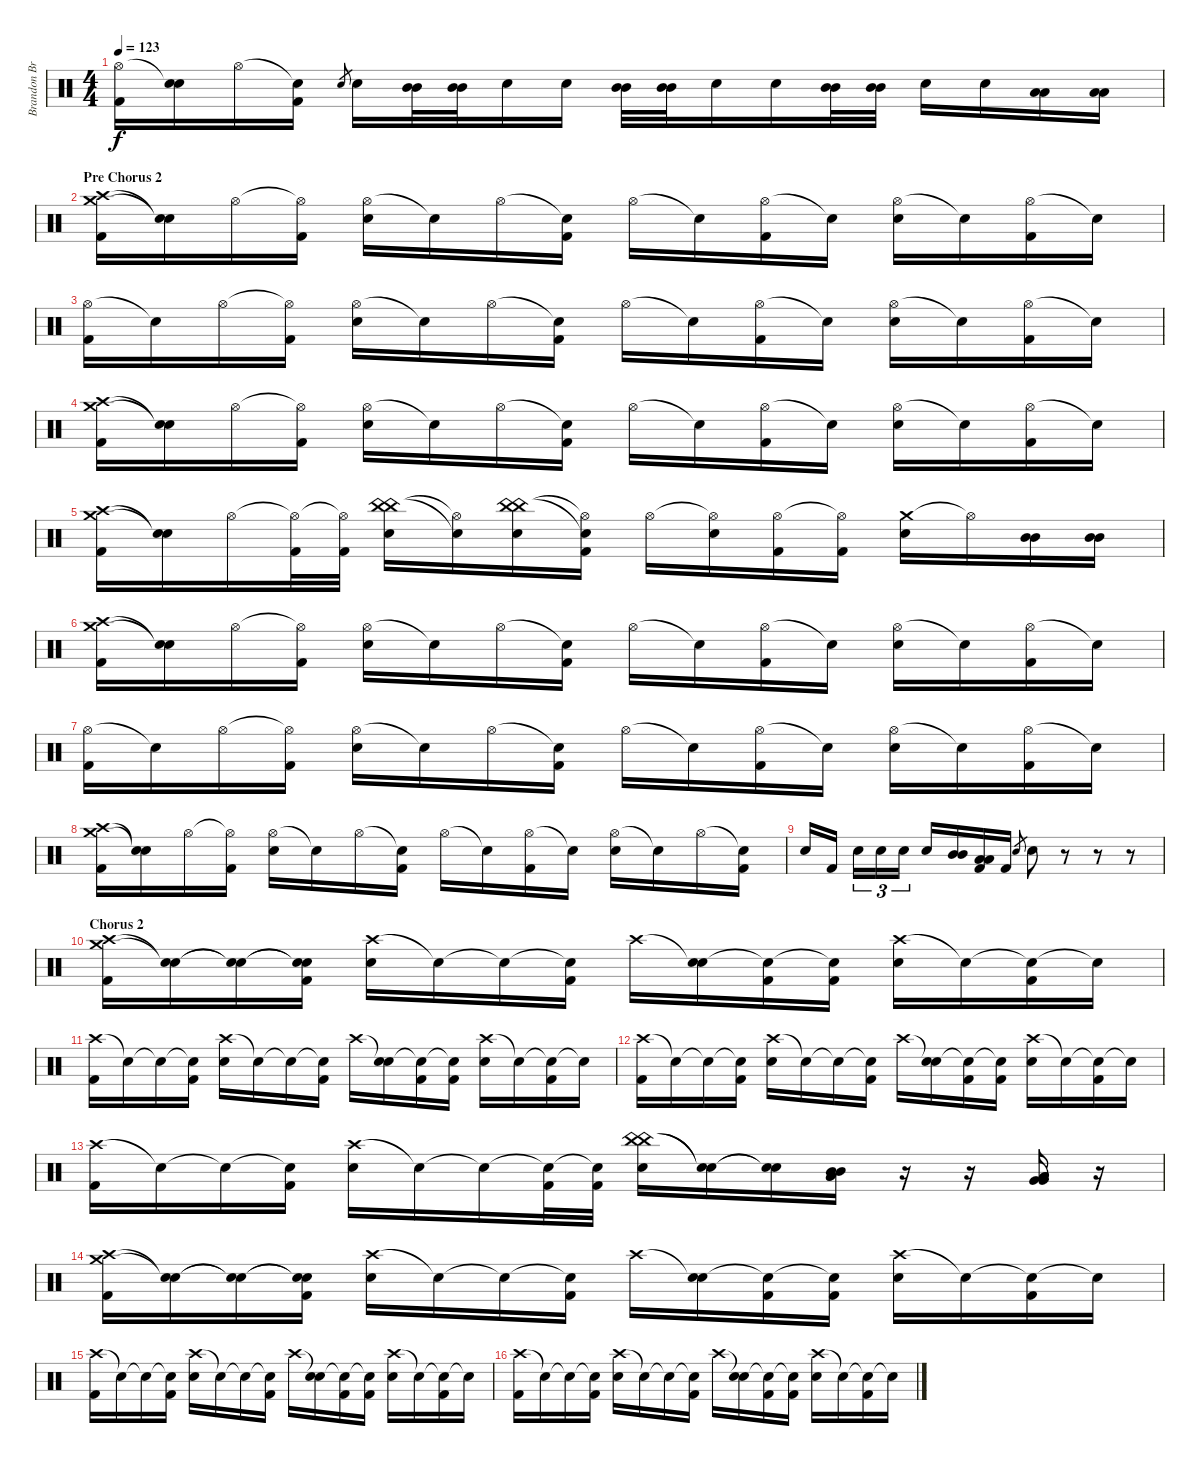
\track ("Brandon Brown (Drums)" "Brandon Br") {instrument percussion}
\staff {score}
\articulation defaults
\ts (4 4)
\tempo 123
\clef neutral
\ks c
("Hi-Hat (open)" "Kick (hit) 2").16{dy f} ("Snare (hit)"{t} "Electric Snare (hit)").16 "Hi-Hat (open)".16 ("Snare (hit)"{t} "Kick (hit) 2").16 "Electric Snare (hit)".8{gr} "Electric Snare (hit)".16 ("Mid Tom (hit)" "Mid Tom (hit)").32 ("Mid Tom (hit)" "Mid Tom (hit)").32 "Electric Snare (hit)".16 "Electric Snare (hit)".16 ("Mid Tom (hit)" "Mid Tom (hit)").32 ("Mid Tom (hit)" "Mid Tom (hit)").32 "Electric Snare (hit)".16 "Electric Snare (hit)".16 ("Mid Tom (hit)" "Mid Tom (hit)").32 ("Mid Tom (hit)" "Mid Tom (hit)").32 "Electric Snare (hit)".16 "Electric Snare (hit)".16 ("Low Tom (hit)" "Low Tom (hit)").16 ("Low Tom (hit)" "Low Tom (hit)").16 |
\section ("" "Pre Chorus 2")
("Crash high (hit)" "Crash medium (hit)" "Kick (hit) 2").16 ("Snare (hit)"{t} "Snare (hit)"{t}).16 "Hi-Hat (open)".16 ("Hi-Hat (open)"{t} "Kick (hit) 2").16 ("Hi-Hat (open)" "Electric Snare (hit)").16 "Snare (hit)"{t}.16 "Hi-Hat (open)".16 ("Snare (hit)"{t} "Kick (hit) 2").16 "Hi-Hat (open)".16 "Snare (hit)"{t}.16 ("Hi-Hat (open)" "Kick (hit) 2").16 "Snare (hit)"{t}.16 ("Hi-Hat (open)" "Electric Snare (hit)").16 "Snare (hit)"{t}.16 ("Hi-Hat (open)" "Kick (hit) 2").16 "Snare (hit)"{t}.16 |
("Hi-Hat (open)" "Kick (hit) 2").16 "Snare (hit)"{t}.16 "Hi-Hat (open)".16 ("Hi-Hat (open)"{t} "Kick (hit) 2").16 ("Hi-Hat (open)" "Electric Snare (hit)").16 "Snare (hit)"{t}.16 "Hi-Hat (open)".16 ("Snare (hit)"{t} "Kick (hit) 2").16 "Hi-Hat (open)".16 "Snare (hit)"{t}.16 ("Hi-Hat (open)" "Kick (hit) 2").16 "Snare (hit)"{t}.16 ("Hi-Hat (open)" "Electric Snare (hit)").16 "Snare (hit)"{t}.16 ("Hi-Hat (open)" "Kick (hit) 2").16 "Snare (hit)"{t}.16 |
("Crash high (hit)" "Crash medium (hit)" "Kick (hit) 2").16 ("Snare (hit)"{t} "Snare (hit)"{t}).16 "Hi-Hat (open)".16 ("Hi-Hat (open)"{t} "Kick (hit) 2").16 ("Hi-Hat (open)" "Electric Snare (hit)").16 "Snare (hit)"{t}.16 "Hi-Hat (open)".16 ("Snare (hit)"{t} "Kick (hit) 2").16 "Hi-Hat (open)".16 "Snare (hit)"{t}.16 ("Hi-Hat (open)" "Kick (hit) 2").16 "Snare (hit)"{t}.16 ("Hi-Hat (open)" "Electric Snare (hit)").16 "Snare (hit)"{t}.16 ("Hi-Hat (open)" "Kick (hit) 2").16 "Snare (hit)"{t}.16 |
("Crash high (hit)" "Crash medium (hit)" "Kick (hit) 2").16 ("Snare (hit)"{t} "Snare (hit)"{t}).16 "Hi-Hat (open)".16 ("Hi-Hat (open)"{t} "Kick (hit) 2").32 ("Hi-Hat (open)"{t} "Kick (hit) 2").32 ("China (hit)" "China (hit)" "Electric Snare (hit)").16 ("Hi-Hat (open)"{t} "Snare (hit)"{t}).16 ("China (hit)" "China (hit)" "Electric Snare (hit)").16 ("Hi-Hat (open)"{t} "Snare (hit)"{t} "Kick (hit) 2").16 "Hi-Hat (open)".16 ("Hi-Hat (open)"{t} "Electric Snare (hit)").16 ("Hi-Hat (open)" "Kick (hit) 2").16 ("Hi-Hat (open)"{t} "Kick (hit) 2").16 ("Crash medium (hit)" "Electric Snare (hit)").16 "Hi-Hat (open)"{t}.16 ("Mid Tom (hit)" "Mid Tom (hit)").16 ("Mid Tom (hit)" "Mid Tom (hit)").16 |
("Crash high (hit)" "Crash medium (hit)" "Kick (hit) 2").16 ("Snare (hit)"{t} "Snare (hit)"{t}).16 "Hi-Hat (open)".16 ("Hi-Hat (open)"{t} "Kick (hit) 2").16 ("Hi-Hat (open)" "Electric Snare (hit)").16 "Snare (hit)"{t}.16 "Hi-Hat (open)".16 ("Snare (hit)"{t} "Kick (hit) 2").16 "Hi-Hat (open)".16 "Snare (hit)"{t}.16 ("Hi-Hat (open)" "Kick (hit) 2").16 "Snare (hit)"{t}.16 ("Hi-Hat (open)" "Electric Snare (hit)").16 "Snare (hit)"{t}.16 ("Hi-Hat (open)" "Kick (hit) 2").16 "Snare (hit)"{t}.16 |
("Hi-Hat (open)" "Kick (hit) 2").16 "Snare (hit)"{t}.16 "Hi-Hat (open)".16 ("Hi-Hat (open)"{t} "Kick (hit) 2").16 ("Hi-Hat (open)" "Electric Snare (hit)").16 "Snare (hit)"{t}.16 "Hi-Hat (open)".16 ("Snare (hit)"{t} "Kick (hit) 2").16 "Hi-Hat (open)".16 "Snare (hit)"{t}.16 ("Hi-Hat (open)" "Kick (hit) 2").16 "Snare (hit)"{t}.16 ("Hi-Hat (open)" "Electric Snare (hit)").16 "Snare (hit)"{t}.16 ("Hi-Hat (open)" "Kick (hit) 2").16 "Snare (hit)"{t}.16 |
("Crash high (hit)" "Crash medium (hit)" "Kick (hit) 2").16 ("Snare (hit)"{t} "Snare (hit)"{t}).16 "Hi-Hat (open)".16 ("Hi-Hat (open)"{t} "Kick (hit) 2").16 ("Hi-Hat (open)" "Electric Snare (hit)").16 "Snare (hit)"{t}.16 "Hi-Hat (open)".16 ("Snare (hit)"{t} "Kick (hit) 2").16 "Hi-Hat (open)".16 "Snare (hit)"{t}.16 ("Hi-Hat (open)" "Kick (hit) 2").16 "Snare (hit)"{t}.16 ("Hi-Hat (open)" "Electric Snare (hit)").16 "Snare (hit)"{t}.16 "Hi-Hat (open)".16 ("Snare (hit)"{t} "Kick (hit) 2").16 |
"Electric Snare (hit)".16 "Kick (hit) 2".16 "Electric Snare (hit)".16{tu (3 2)} "Electric Snare (hit)".16{tu (3 2)} "Electric Snare (hit)".16{tu (3 2)} "Electric Snare (hit)".16 ("Mid Tom (hit)" "Mid Tom (hit)").16 ("Low Tom (hit)" "Low Tom (hit)" "Kick (hit) 2").16 "Kick (hit) 2".16 "Electric Snare (hit)".8{gr} "Electric Snare (hit)".8 r.8 r.8 r.8 |
\section ("" "Chorus 2")
("Crash high (hit)" "Crash medium (hit)" "Kick (hit) 2").16 ("Snare (hit)"{t} "Snare (hit)"{t}).16 ("Snare (hit)"{t} "Snare (hit)"{t}).16 ("Snare (hit)"{t} "Snare (hit)"{t} "Kick (hit) 2").16 ("Crash high (hit)" "Electric Snare (hit)").16 "Snare (hit)"{t}.16 "Snare (hit)"{t}.16 ("Snare (hit)"{t} "Kick (hit) 2").16 "Crash high (hit)".16 ("Snare (hit)"{t} "Electric Snare (hit)").16 ("Snare (hit)"{t} "Kick (hit) 2").16 ("Snare (hit)"{t} "Kick (hit) 2").16 ("Crash high (hit)" "Electric Snare (hit)").16 "Snare (hit)"{t}.16 ("Snare (hit)"{t} "Kick (hit) 2").16 "Snare (hit)"{t}.16 |
("Crash high (hit)" "Kick (hit) 2").16 "Snare (hit)"{t}.16 "Snare (hit)"{t}.16 ("Snare (hit)"{t} "Kick (hit) 2").16 ("Crash high (hit)" "Electric Snare (hit)").16 "Snare (hit)"{t}.16 "Snare (hit)"{t}.16 ("Snare (hit)"{t} "Kick (hit) 2").16 "Crash high (hit)".16 ("Snare (hit)"{t} "Electric Snare (hit)").16 ("Snare (hit)"{t} "Kick (hit) 2").16 ("Snare (hit)"{t} "Kick (hit) 2").16 ("Crash high (hit)" "Electric Snare (hit)").16 "Snare (hit)"{t}.16 ("Snare (hit)"{t} "Kick (hit) 2").16 "Snare (hit)"{t}.16 |
("Crash high (hit)" "Kick (hit) 2").16 "Snare (hit)"{t}.16 "Snare (hit)"{t}.16 ("Snare (hit)"{t} "Kick (hit) 2").16 ("Crash high (hit)" "Electric Snare (hit)").16 "Snare (hit)"{t}.16 "Snare (hit)"{t}.16 ("Snare (hit)"{t} "Kick (hit) 2").16 "Crash high (hit)".16 ("Snare (hit)"{t} "Electric Snare (hit)").16 ("Snare (hit)"{t} "Kick (hit) 2").16 ("Snare (hit)"{t} "Kick (hit) 2").16 ("Crash high (hit)" "Electric Snare (hit)").16 "Snare (hit)"{t}.16 ("Snare (hit)"{t} "Kick (hit) 2").16 "Snare (hit)"{t}.16 |
("Crash high (hit)" "Kick (hit) 2").16 "Snare (hit)"{t}.16 "Snare (hit)"{t}.16 ("Snare (hit)"{t} "Kick (hit) 2").16 ("Crash high (hit)" "Electric Snare (hit)").16 "Snare (hit)"{t}.16 "Snare (hit)"{t}.16 ("Snare (hit)"{t} "Kick (hit) 2").32 ("Snare (hit)"{t} "Kick (hit) 2").32 ("China (hit)" "China (hit)" "Electric Snare (hit)").16 ("Snare (hit)"{t} "Snare (hit)"{t}).16 ("Snare (hit)"{t} "Snare (hit)"{t}).16 ("Mid Tom (hit)" "Mid Tom (hit)" "Low Tom (hit)" "Low Tom (hit)").16 r.16 r.16 ("Low Tom (hit)" "Low Tom (hit)" "Very Low Tom (hit)" "Very Low Tom (hit)").16 r.16 |
("Crash high (hit)" "Crash medium (hit)" "Kick (hit) 2").16 ("Snare (hit)"{t} "Snare (hit)"{t}).16 ("Snare (hit)"{t} "Snare (hit)"{t}).16 ("Snare (hit)"{t} "Snare (hit)"{t} "Kick (hit) 2").16 ("Crash high (hit)" "Electric Snare (hit)").16 "Snare (hit)"{t}.16 "Snare (hit)"{t}.16 ("Snare (hit)"{t} "Kick (hit) 2").16 "Crash high (hit)".16 ("Snare (hit)"{t} "Electric Snare (hit)").16 ("Snare (hit)"{t} "Kick (hit) 2").16 ("Snare (hit)"{t} "Kick (hit) 2").16 ("Crash high (hit)" "Electric Snare (hit)").16 "Snare (hit)"{t}.16 ("Snare (hit)"{t} "Kick (hit) 2").16 "Snare (hit)"{t}.16 |
("Crash high (hit)" "Kick (hit) 2").16 "Snare (hit)"{t}.16 "Snare (hit)"{t}.16 ("Snare (hit)"{t} "Kick (hit) 2").16 ("Crash high (hit)" "Electric Snare (hit)").16 "Snare (hit)"{t}.16 "Snare (hit)"{t}.16 ("Snare (hit)"{t} "Kick (hit) 2").16 "Crash high (hit)".16 ("Snare (hit)"{t} "Electric Snare (hit)").16 ("Snare (hit)"{t} "Kick (hit) 2").16 ("Snare (hit)"{t} "Kick (hit) 2").16 ("Crash high (hit)" "Electric Snare (hit)").16 "Snare (hit)"{t}.16 ("Snare (hit)"{t} "Kick (hit) 2").16 "Snare (hit)"{t}.16 |
("Crash high (hit)" "Kick (hit) 2").16 "Snare (hit)"{t}.16 "Snare (hit)"{t}.16 ("Snare (hit)"{t} "Kick (hit) 2").16 ("Crash high (hit)" "Electric Snare (hit)").16 "Snare (hit)"{t}.16 "Snare (hit)"{t}.16 ("Snare (hit)"{t} "Kick (hit) 2").16 "Crash high (hit)".16 ("Snare (hit)"{t} "Electric Snare (hit)").16 ("Snare (hit)"{t} "Kick (hit) 2").16 ("Snare (hit)"{t} "Kick (hit) 2").16 ("Crash high (hit)" "Electric Snare (hit)").16 "Snare (hit)"{t}.16 ("Snare (hit)"{t} "Kick (hit) 2").16 "Snare (hit)"{t}.16
